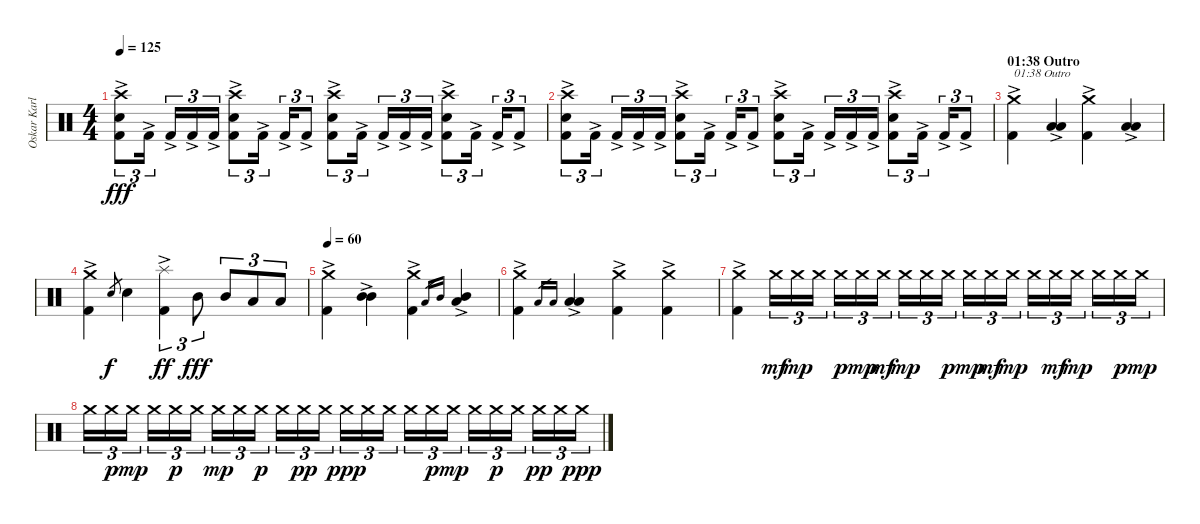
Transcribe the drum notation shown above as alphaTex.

\track ("Oskar Karlsson" "Oskar Karl") {instrument percussion}
\staff {score}
\articulation defaults
\ts (4 4)
\tempo 125
\clef neutral
\ks c
("Kick (hit) 2"{ac} "Electric Snare (hit)" "Crash high (hit)").8{tu (3 2) dy fff} "Kick (hit) 2"{ac}.16{tu (3 2)} "Kick (hit) 2"{ac}.16{tu (3 2)} "Kick (hit) 2"{ac}.16{tu (3 2)} "Kick (hit) 2"{ac}.16{tu (3 2)} ("Kick (hit) 2"{ac} "Electric Snare (hit)" "Crash high (hit)").8{tu (3 2)} "Kick (hit) 2"{ac}.16{tu (3 2)} "Kick (hit) 2"{ac}.16{tu (3 2)} "Kick (hit) 2"{ac}.8{tu (3 2)} ("Kick (hit) 2"{ac} "Electric Snare (hit)" "Crash high (hit)").8{tu (3 2)} "Kick (hit) 2"{ac}.16{tu (3 2)} "Kick (hit) 2"{ac}.16{tu (3 2)} "Kick (hit) 2"{ac}.16{tu (3 2)} "Kick (hit) 2"{ac}.16{tu (3 2)} ("Kick (hit) 2"{ac} "Electric Snare (hit)" "Crash high (hit)").8{tu (3 2)} "Kick (hit) 2"{ac}.16{tu (3 2)} "Kick (hit) 2"{ac}.16{tu (3 2)} "Kick (hit) 2"{ac}.8{tu (3 2)} |
("Kick (hit) 2"{ac} "Electric Snare (hit)" "Crash high (hit)").8{tu (3 2)} "Kick (hit) 2"{ac}.16{tu (3 2)} "Kick (hit) 2"{ac}.16{tu (3 2)} "Kick (hit) 2"{ac}.16{tu (3 2)} "Kick (hit) 2"{ac}.16{tu (3 2)} ("Kick (hit) 2"{ac} "Electric Snare (hit)" "Crash high (hit)").8{tu (3 2)} "Kick (hit) 2"{ac}.16{tu (3 2)} "Kick (hit) 2"{ac}.16{tu (3 2)} "Kick (hit) 2"{ac}.8{tu (3 2)} ("Kick (hit) 2"{ac} "Electric Snare (hit)" "Crash high (hit)").8{tu (3 2)} "Kick (hit) 2"{ac}.16{tu (3 2)} "Kick (hit) 2"{ac}.16{tu (3 2)} "Kick (hit) 2"{ac}.16{tu (3 2)} "Kick (hit) 2"{ac}.16{tu (3 2)} ("Kick (hit) 2"{ac} "Electric Snare (hit)" "Crash high (hit)").8{tu (3 2)} "Kick (hit) 2"{ac}.16{tu (3 2)} "Kick (hit) 2"{ac}.16{tu (3 2)} "Kick (hit) 2"{ac}.8{tu (3 2)} |
\section ("" "01:38 Outro")
("Kick (hit) 2"{ac} "Crash medium (hit)").4{txt "01:38 Outro"} ("Low Tom (hit)"{ac} "Low Tom (hit)"{ac}).4 ("Kick (hit) 2"{ac} "Crash medium (hit)").4 ("Low Tom (hit)"{ac} "Low Tom (hit)"{ac}).4 |
("Kick (hit) 2"{ac} "Crash medium (hit)").4 "Electric Snare (hit)".8{gr dy f} "Electric Snare (hit)".4 ("Kick (hit) 2"{ac} "Splash (hit)").4{tu (3 2) dy ff} "Mid Tom (hit)".8{tu (3 2) dy fff} "Mid Tom (hit)".8{tu (3 2)} "Low Tom (hit)".8{tu (3 2)} "Low Tom (hit)".8{tu (3 2)} |
\tempo 60
("Kick (hit) 2"{ac} "Crash medium (hit)").4 ("Mid Tom (hit)"{ac} "Mid Tom (hit)"{ac}).4 ("Kick (hit) 2"{ac} "Crash medium (hit)").4 "Low Tom (hit)".16{gr} "Mid Tom (hit)".16{gr} ("Low Tom (hit)"{ac} "Mid Tom (hit)"{ac}).4 |
("Kick (hit) 2"{ac} "Crash medium (hit)").4 "Low Tom (hit)".16{gr} "Low Tom (hit)".16{gr} ("Low Tom (hit)"{ac} "Low Tom (hit)"{ac}).4 ("Kick (hit) 2"{ac} "Crash medium (hit)").4 ("Kick (hit) 2"{ac} "Crash medium (hit)").4 |
("Kick (hit) 2"{ac} "Crash medium (hit)").4 "Crash medium (hit)".16{tu (3 2) dy mf} "Crash medium (hit)".16{tu (3 2) dy mp} "Crash medium (hit)".16{tu (3 2)} "Crash medium (hit)".16{tu (3 2) dy p} "Crash medium (hit)".16{tu (3 2) dy mp} "Crash medium (hit)".16{tu (3 2) dy mf} "Crash medium (hit)".16{tu (3 2) dy mp} "Crash medium (hit)".16{tu (3 2)} "Crash medium (hit)".16{tu (3 2) dy p} "Crash medium (hit)".16{tu (3 2) dy mp} "Crash medium (hit)".16{tu (3 2) dy mf} "Crash medium (hit)".16{tu (3 2) dy mp} "Crash medium (hit)".16{tu (3 2)} "Crash medium (hit)".16{tu (3 2) dy mf} "Crash medium (hit)".16{tu (3 2) dy mp} "Crash medium (hit)".16{tu (3 2)} "Crash medium (hit)".16{tu (3 2) dy p} "Crash medium (hit)".16{tu (3 2) dy mp} |
"Crash medium (hit)".16{tu (3 2) volume 5} "Crash medium (hit)".16{tu (3 2) dy p} "Crash medium (hit)".16{tu (3 2) dy mp} "Crash medium (hit)".16{tu (3 2)} "Crash medium (hit)".16{tu (3 2) dy p} "Crash medium (hit)".16{tu (3 2)} "Crash medium (hit)".16{tu (3 2) dy mp} "Crash medium (hit)".16{tu (3 2)} "Crash medium (hit)".16{tu (3 2) dy p} "Crash medium (hit)".16{tu (3 2)} "Crash medium (hit)".16{tu (3 2) dy pp} "Crash medium (hit)".16{tu (3 2)} "Crash medium (hit)".16{tu (3 2) dy ppp} "Crash medium (hit)".16{tu (3 2)} "Crash medium (hit)".16{tu (3 2)} "Crash medium (hit)".16{tu (3 2)} "Crash medium (hit)".16{tu (3 2) dy p} "Crash medium (hit)".16{tu (3 2) dy mp} "Crash medium (hit)".16{tu (3 2)} "Crash medium (hit)".16{tu (3 2) dy p} "Crash medium (hit)".16{tu (3 2)} "Crash medium (hit)".16{tu (3 2) dy pp} "Crash medium (hit)".16{tu (3 2)} "Crash medium (hit)".16{tu (3 2) dy ppp}
